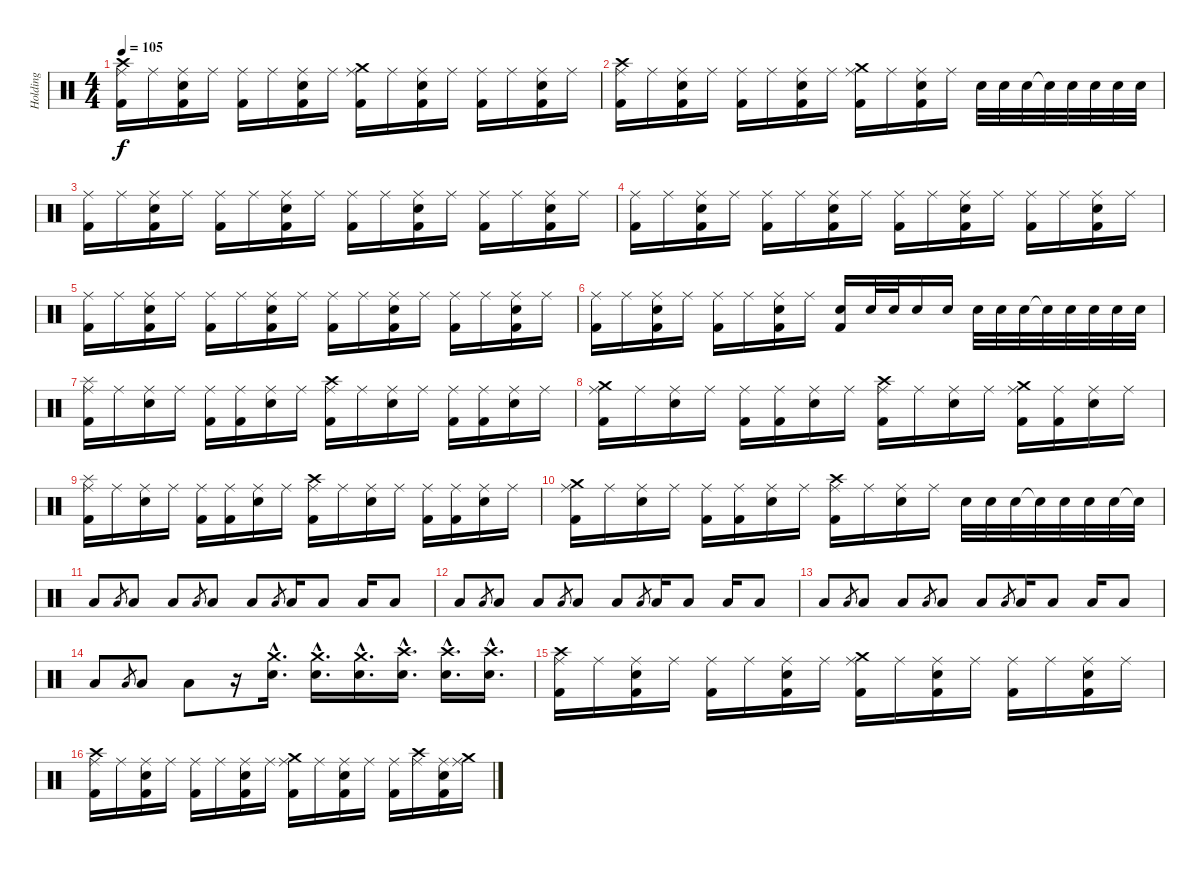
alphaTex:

\track ("Holding" "Holding") {instrument percussion}
\staff {score}
\articulation defaults
\ts (4 4)
\tempo 105
\clef neutral
\ks c
("Crash high (hit)" "Ride (middle)" "Kick (hit) 2").16{dy f} "Ride (middle)".16 ("Ride (middle)" "Electric Snare (hit)" "Kick (hit) 2").16 "Ride (middle)".16 ("Ride (middle)" "Kick (hit) 2").16 "Ride (middle)".16 ("Ride (middle)" "Electric Snare (hit)" "Kick (hit) 2").16 "Ride (middle)".16 ("Crash medium (hit)" "Ride (middle)" "Kick (hit) 2").16 "Ride (middle)".16 ("Ride (middle)" "Electric Snare (hit)" "Kick (hit) 2").16 "Ride (middle)".16 ("Ride (middle)" "Kick (hit) 2").16 "Ride (middle)".16 ("Ride (middle)" "Electric Snare (hit)" "Kick (hit) 2").16 "Ride (middle)".16 |
("Crash high (hit)" "Ride (middle)" "Kick (hit) 2").16 "Ride (middle)".16 ("Ride (middle)" "Electric Snare (hit)" "Kick (hit) 2").16 "Ride (middle)".16 ("Ride (middle)" "Kick (hit) 2").16 "Ride (middle)".16 ("Ride (middle)" "Electric Snare (hit)" "Kick (hit) 2").16 "Ride (middle)".16 ("Crash medium (hit)" "Ride (middle)" "Kick (hit) 2").16 "Ride (middle)".16 ("Ride (middle)" "Electric Snare (hit)" "Kick (hit) 2").16 "Ride (middle)".16 "Electric Snare (hit)".32 "Electric Snare (hit)".32 "Electric Snare (hit)".32 "Electric Snare (hit)"{t}.32 "Electric Snare (hit)".32 "Electric Snare (hit)".32 "Electric Snare (hit)".32 "Electric Snare (hit)".32 |
("Ride (middle)" "Kick (hit) 2").16 "Ride (middle)".16 ("Ride (middle)" "Electric Snare (hit)" "Kick (hit) 2").16 "Ride (middle)".16 ("Ride (middle)" "Kick (hit) 2").16 "Ride (middle)".16 ("Ride (middle)" "Electric Snare (hit)" "Kick (hit) 2").16 "Ride (middle)".16 ("Ride (middle)" "Kick (hit) 2").16 "Ride (middle)".16 ("Ride (middle)" "Electric Snare (hit)" "Kick (hit) 2").16 "Ride (middle)".16 ("Ride (middle)" "Kick (hit) 2").16 "Ride (middle)".16 ("Ride (middle)" "Electric Snare (hit)" "Kick (hit) 2").16 "Ride (middle)".16 |
("Ride (middle)" "Kick (hit) 2").16 "Ride (middle)".16 ("Ride (middle)" "Electric Snare (hit)" "Kick (hit) 2").16 "Ride (middle)".16 ("Ride (middle)" "Kick (hit) 2").16 "Ride (middle)".16 ("Ride (middle)" "Electric Snare (hit)" "Kick (hit) 2").16 "Ride (middle)".16 ("Ride (middle)" "Kick (hit) 2").16 "Ride (middle)".16 ("Ride (middle)" "Electric Snare (hit)" "Kick (hit) 2").16 "Ride (middle)".16 ("Ride (middle)" "Kick (hit) 2").16 "Ride (middle)".16 ("Ride (middle)" "Electric Snare (hit)" "Kick (hit) 2").16 "Ride (middle)".16 |
("Ride (middle)" "Kick (hit) 2").16 "Ride (middle)".16 ("Ride (middle)" "Electric Snare (hit)" "Kick (hit) 2").16 "Ride (middle)".16 ("Ride (middle)" "Kick (hit) 2").16 "Ride (middle)".16 ("Ride (middle)" "Electric Snare (hit)" "Kick (hit) 2").16 "Ride (middle)".16 ("Ride (middle)" "Kick (hit) 2").16 "Ride (middle)".16 ("Ride (middle)" "Electric Snare (hit)" "Kick (hit) 2").16 "Ride (middle)".16 ("Ride (middle)" "Kick (hit) 2").16 "Ride (middle)".16 ("Ride (middle)" "Electric Snare (hit)" "Kick (hit) 2").16 "Ride (middle)".16 |
("Ride (middle)" "Kick (hit) 2").16 "Ride (middle)".16 ("Ride (middle)" "Electric Snare (hit)" "Kick (hit) 2").16 "Ride (middle)".16 ("Ride (middle)" "Kick (hit) 2").16 "Ride (middle)".16 ("Ride (middle)" "Electric Snare (hit)" "Kick (hit) 2").16 "Ride (middle)".16 ("Electric Snare (hit)" "Kick (hit) 2").16 "Electric Snare (hit)".32 "Electric Snare (hit)".32 "Electric Snare (hit)".16 "Electric Snare (hit)".16 "Electric Snare (hit)".32 "Electric Snare (hit)".32 "Electric Snare (hit)".32 "Electric Snare (hit)"{t}.32 "Electric Snare (hit)".32 "Electric Snare (hit)".32 "Electric Snare (hit)".32 "Electric Snare (hit)".32 |
("Splash (hit)" "Ride (middle)" "Kick (hit) 2").16 "Ride (middle)".16 ("Ride (middle)" "Electric Snare (hit)").16 "Ride (middle)".16 ("Ride (middle)" "Kick (hit) 2").16 ("Ride (middle)" "Kick (hit) 2").16 ("Ride (middle)" "Electric Snare (hit)").16 "Ride (middle)".16 ("Crash high (hit)" "Ride (middle)" "Kick (hit) 2").16 "Ride (middle)".16 ("Ride (middle)" "Electric Snare (hit)").16 "Ride (middle)".16 ("Ride (middle)" "Kick (hit) 2").16 ("Ride (middle)" "Kick (hit) 2").16 ("Ride (middle)" "Electric Snare (hit)").16 "Ride (middle)".16 |
("Crash medium (hit)" "Ride (middle)" "Kick (hit) 2").16 "Ride (middle)".16 ("Ride (middle)" "Electric Snare (hit)").16 "Ride (middle)".16 ("Ride (middle)" "Kick (hit) 2").16 ("Ride (middle)" "Kick (hit) 2").16 ("Ride (middle)" "Electric Snare (hit)").16 "Ride (middle)".16 ("Crash high (hit)" "Ride (middle)" "Kick (hit) 2").16 "Ride (middle)".16 ("Ride (middle)" "Electric Snare (hit)").16 "Ride (middle)".16 ("Crash medium (hit)" "Ride (middle)" "Kick (hit) 2").16 ("Ride (middle)" "Kick (hit) 2").16 ("Ride (middle)" "Electric Snare (hit)").16 "Ride (middle)".16 |
("Splash (hit)" "Ride (middle)" "Kick (hit) 2").16 "Ride (middle)".16 ("Ride (middle)" "Electric Snare (hit)").16 "Ride (middle)".16 ("Ride (middle)" "Kick (hit) 2").16 ("Ride (middle)" "Kick (hit) 2").16 ("Ride (middle)" "Electric Snare (hit)").16 "Ride (middle)".16 ("Crash high (hit)" "Ride (middle)" "Kick (hit) 2").16 "Ride (middle)".16 ("Ride (middle)" "Electric Snare (hit)").16 "Ride (middle)".16 ("Ride (middle)" "Kick (hit) 2").16 ("Ride (middle)" "Kick (hit) 2").16 ("Ride (middle)" "Electric Snare (hit)").16 "Ride (middle)".16 |
("Crash medium (hit)" "Ride (middle)" "Kick (hit) 2").16 "Ride (middle)".16 ("Ride (middle)" "Electric Snare (hit)").16 "Ride (middle)".16 ("Ride (middle)" "Kick (hit) 2").16 ("Ride (middle)" "Kick (hit) 2").16 ("Ride (middle)" "Electric Snare (hit)").16 "Ride (middle)".16 ("Crash high (hit)" "Ride (middle)" "Kick (hit) 2").16 "Ride (middle)".16 ("Ride (middle)" "Electric Snare (hit)").16 "Ride (middle)".16 "Electric Snare (hit)".32 "Electric Snare (hit)".32 "Electric Snare (hit)".32 "Electric Snare (hit)"{t}.32 "Electric Snare (hit)".32 "Electric Snare (hit)".32 "Electric Snare (hit)".32 "Electric Snare (hit)"{t}.32 |
"Low Floor Tom (hit)".8 "Low Floor Tom (hit)".8{gr} "Low Floor Tom (hit)".8 "Low Floor Tom (hit)".8 "Low Floor Tom (hit)".8{gr} "Low Floor Tom (hit)".8 "Low Floor Tom (hit)".8 "Low Floor Tom (hit)".8{gr} "Low Floor Tom (hit)".16 "Low Floor Tom (hit)".8 "Low Floor Tom (hit)".16 "Low Floor Tom (hit)".8 |
"Low Floor Tom (hit)".8 "Low Floor Tom (hit)".8{gr} "Low Floor Tom (hit)".8 "Low Floor Tom (hit)".8 "Low Floor Tom (hit)".8{gr} "Low Floor Tom (hit)".8 "Low Floor Tom (hit)".8 "Low Floor Tom (hit)".8{gr} "Low Floor Tom (hit)".16 "Low Floor Tom (hit)".8 "Low Floor Tom (hit)".16 "Low Floor Tom (hit)".8 |
"Low Floor Tom (hit)".8 "Low Floor Tom (hit)".8{gr} "Low Floor Tom (hit)".8 "Low Floor Tom (hit)".8 "Low Floor Tom (hit)".8{gr} "Low Floor Tom (hit)".8 "Low Floor Tom (hit)".8 "Low Floor Tom (hit)".8{gr} "Low Floor Tom (hit)".16 "Low Floor Tom (hit)".8 "Low Floor Tom (hit)".16 "Low Floor Tom (hit)".8 |
"Low Floor Tom (hit)".8 "Low Floor Tom (hit)".8{gr} "Low Floor Tom (hit)".8 "Low Floor Tom (hit)".8 r.16 ("Crash medium (hit)"{hac} "Electric Snare (hit)"{hac}).16{d} ("Crash medium (hit)"{hac} "Electric Snare (hit)"{hac}).16{d} ("Crash medium (hit)"{hac} "Electric Snare (hit)"{hac}).16{d} ("Crash high (hit)"{hac} "Electric Snare (hit)"{hac}).16{d} ("Crash high (hit)"{hac} "Electric Snare (hit)"{hac}).16{d} ("Crash high (hit)"{hac} "Electric Snare (hit)"{hac}).16{d} |
("Crash high (hit)" "Ride (middle)" "Kick (hit) 2").16 "Ride (middle)".16 ("Ride (middle)" "Electric Snare (hit)" "Kick (hit) 2").16 "Ride (middle)".16 ("Ride (middle)" "Kick (hit) 2").16 "Ride (middle)".16 ("Ride (middle)" "Electric Snare (hit)" "Kick (hit) 2").16 "Ride (middle)".16 ("Crash medium (hit)" "Ride (middle)" "Kick (hit) 2").16 "Ride (middle)".16 ("Ride (middle)" "Electric Snare (hit)" "Kick (hit) 2").16 "Ride (middle)".16 ("Ride (middle)" "Kick (hit) 2").16 "Ride (middle)".16 ("Ride (middle)" "Electric Snare (hit)" "Kick (hit) 2").16 "Ride (middle)".16 |
("Crash high (hit)" "Ride (middle)" "Kick (hit) 2").16 "Ride (middle)".16 ("Ride (middle)" "Electric Snare (hit)" "Kick (hit) 2").16 "Ride (middle)".16 ("Ride (middle)" "Kick (hit) 2").16 "Ride (middle)".16 ("Ride (middle)" "Electric Snare (hit)" "Kick (hit) 2").16 "Ride (middle)".16 ("Crash medium (hit)" "Ride (middle)" "Kick (hit) 2").16 "Ride (middle)".16 ("Ride (middle)" "Electric Snare (hit)" "Kick (hit) 2").16 "Ride (middle)".16 ("Ride (middle)" "Kick (hit) 2").16 ("Crash high (hit)" "Ride (middle)").16 ("Ride (middle)" "Electric Snare (hit)" "Kick (hit) 2").16 ("Crash medium (hit)" "Ride (middle)").16
